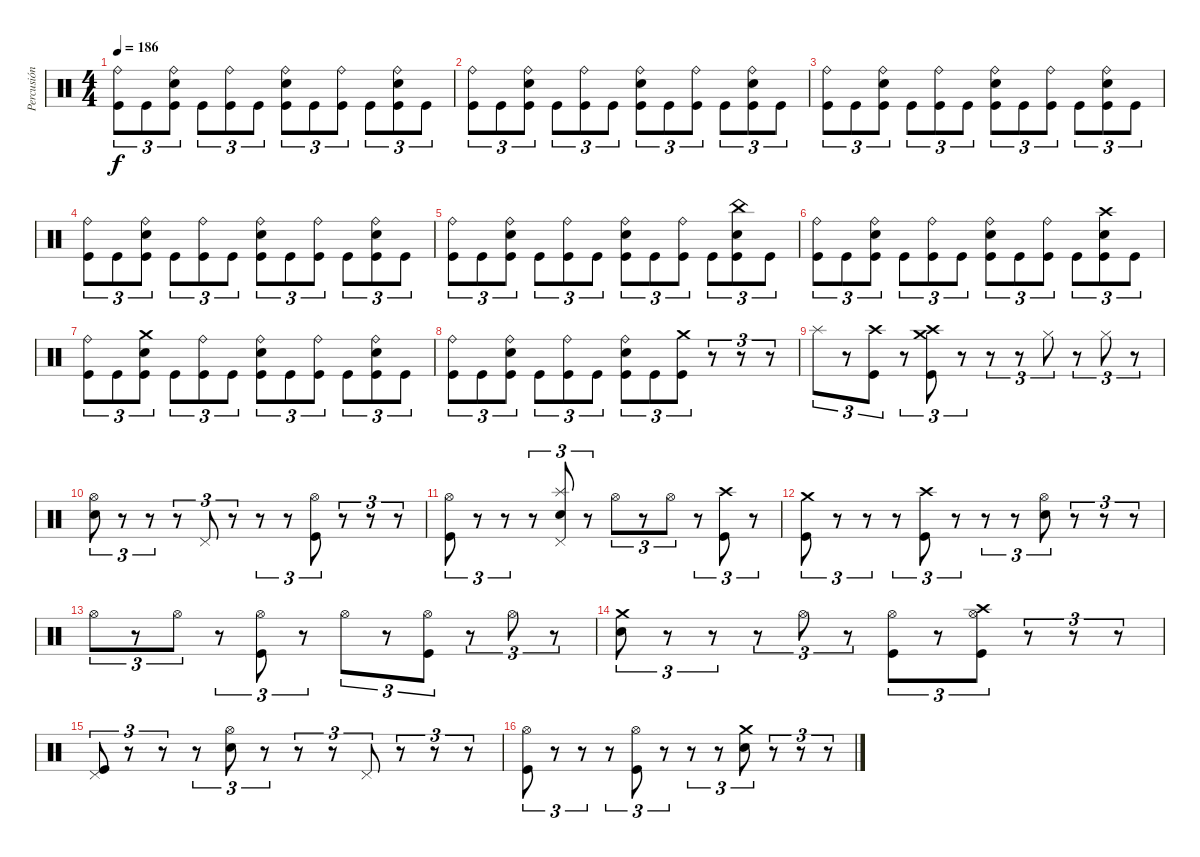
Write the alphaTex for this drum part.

\track ("Percusión" "Percusión") {instrument percussion}
\staff {score}
\articulation defaults
\ts (4 4)
\tempo 186
\clef neutral
\ks c
("Ride (bell)" "Kick (hit)").8{tu (3 2) dy f} "Kick (hit)".8{tu (3 2)} ("Ride (bell)" "Snare (hit) 2" "Kick (hit)").8{tu (3 2)} "Kick (hit)".8{tu (3 2)} ("Ride (bell)" "Kick (hit)").8{tu (3 2)} "Kick (hit)".8{tu (3 2)} ("Ride (bell)" "Snare (hit) 2" "Kick (hit)").8{tu (3 2)} "Kick (hit)".8{tu (3 2)} ("Ride (bell)" "Kick (hit)").8{tu (3 2)} "Kick (hit)".8{tu (3 2)} ("Ride (bell)" "Snare (hit) 2" "Kick (hit)").8{tu (3 2)} "Kick (hit)".8{tu (3 2)} |
("Ride (bell)" "Kick (hit)").8{tu (3 2)} "Kick (hit)".8{tu (3 2)} ("Ride (bell)" "Snare (hit) 2" "Kick (hit)").8{tu (3 2)} "Kick (hit)".8{tu (3 2)} ("Ride (bell)" "Kick (hit)").8{tu (3 2)} "Kick (hit)".8{tu (3 2)} ("Ride (bell)" "Snare (hit) 2" "Kick (hit)").8{tu (3 2)} "Kick (hit)".8{tu (3 2)} ("Ride (bell)" "Kick (hit)").8{tu (3 2)} "Kick (hit)".8{tu (3 2)} ("Ride (bell)" "Snare (hit) 2" "Kick (hit)").8{tu (3 2)} "Kick (hit)".8{tu (3 2)} |
("Ride (bell)" "Kick (hit)").8{tu (3 2)} "Kick (hit)".8{tu (3 2)} ("Ride (bell)" "Snare (hit) 2" "Kick (hit)").8{tu (3 2)} "Kick (hit)".8{tu (3 2)} ("Ride (bell)" "Kick (hit)").8{tu (3 2)} "Kick (hit)".8{tu (3 2)} ("Ride (bell)" "Snare (hit) 2" "Kick (hit)").8{tu (3 2)} "Kick (hit)".8{tu (3 2)} ("Ride (bell)" "Kick (hit)").8{tu (3 2)} "Kick (hit)".8{tu (3 2)} ("Ride (bell)" "Snare (hit) 2" "Kick (hit)").8{tu (3 2)} "Kick (hit)".8{tu (3 2)} |
("Ride (bell)" "Kick (hit)").8{tu (3 2)} "Kick (hit)".8{tu (3 2)} ("Ride (bell)" "Snare (hit) 2" "Kick (hit)").8{tu (3 2)} "Kick (hit)".8{tu (3 2)} ("Ride (bell)" "Kick (hit)").8{tu (3 2)} "Kick (hit)".8{tu (3 2)} ("Ride (bell)" "Snare (hit) 2" "Kick (hit)").8{tu (3 2)} "Kick (hit)".8{tu (3 2)} ("Ride (bell)" "Kick (hit)").8{tu (3 2)} "Kick (hit)".8{tu (3 2)} ("Ride (bell)" "Snare (hit) 2" "Kick (hit)").8{tu (3 2)} "Kick (hit)".8{tu (3 2)} |
("Ride (bell)" "Kick (hit)").8{tu (3 2)} "Kick (hit)".8{tu (3 2)} ("Ride (bell)" "Snare (hit) 2" "Kick (hit)").8{tu (3 2)} "Kick (hit)".8{tu (3 2)} ("Ride (bell)" "Kick (hit)").8{tu (3 2)} "Kick (hit)".8{tu (3 2)} ("Ride (bell)" "Snare (hit) 2" "Kick (hit)").8{tu (3 2)} "Kick (hit)".8{tu (3 2)} ("Ride (bell)" "Kick (hit)").8{tu (3 2)} "Kick (hit)".8{tu (3 2)} ("China (hit)" "Snare (hit) 2" "Kick (hit)").8{tu (3 2)} "Kick (hit)".8{tu (3 2)} |
("Ride (bell)" "Kick (hit)").8{tu (3 2)} "Kick (hit)".8{tu (3 2)} ("Ride (bell)" "Snare (hit) 2" "Kick (hit)").8{tu (3 2)} "Kick (hit)".8{tu (3 2)} ("Ride (bell)" "Kick (hit)").8{tu (3 2)} "Kick (hit)".8{tu (3 2)} ("Ride (bell)" "Snare (hit) 2" "Kick (hit)").8{tu (3 2)} "Kick (hit)".8{tu (3 2)} ("Ride (bell)" "Kick (hit)").8{tu (3 2)} "Kick (hit)".8{tu (3 2)} ("Crash high (hit)" "Snare (hit) 2" "Kick (hit)").8{tu (3 2)} "Kick (hit)".8{tu (3 2)} |
("Ride (bell)" "Kick (hit)").8{tu (3 2)} "Kick (hit)".8{tu (3 2)} ("Crash medium (hit)" "Snare (hit) 2" "Kick (hit)").8{tu (3 2)} "Kick (hit)".8{tu (3 2)} ("Ride (bell)" "Kick (hit)").8{tu (3 2)} "Kick (hit)".8{tu (3 2)} ("Ride (bell)" "Snare (hit) 2" "Kick (hit)").8{tu (3 2)} "Kick (hit)".8{tu (3 2)} ("Ride (bell)" "Kick (hit)").8{tu (3 2)} "Kick (hit)".8{tu (3 2)} ("Ride (bell)" "Snare (hit) 2" "Kick (hit)").8{tu (3 2)} "Kick (hit)".8{tu (3 2)} |
("Ride (bell)" "Kick (hit)").8{tu (3 2)} "Kick (hit)".8{tu (3 2)} ("Ride (bell)" "Snare (hit) 2" "Kick (hit)").8{tu (3 2)} "Kick (hit)".8{tu (3 2)} ("Ride (bell)" "Kick (hit)").8{tu (3 2)} "Kick (hit)".8{tu (3 2)} ("Ride (bell)" "Snare (hit) 2" "Kick (hit)").8{tu (3 2)} "Kick (hit)".8{tu (3 2)} ("Crash medium (hit)" "Kick (hit)").8{tu (3 2)} r.8{tu (3 2)} r.8{tu (3 2)} r.8{tu (3 2)} |
"Splash (hit)".8{tu (3 2)} r.8{tu (3 2)} ("Crash high (hit)" "Kick (hit)").8{tu (3 2)} r.8{tu (3 2)} ("Crash high (hit)" "Crash medium (hit)" "Kick (hit)").8{tu (3 2)} r.8{tu (3 2)} r.8{tu (3 2)} r.8{tu (3 2)} "Hi-Hat (closed)".8{tu (3 2)} r.8{tu (3 2)} "Hi-Hat (closed)".8{tu (3 2)} r.8{tu (3 2)} |
("Hi-Hat (open)" "Snare (hit) 2").8{tu (3 2)} r.8{tu (3 2)} r.8{tu (3 2)} r.8{tu (3 2)} "Pedal Hi-Hat (hit)".8{tu (3 2)} r.8{tu (3 2)} r.8{tu (3 2)} r.8{tu (3 2)} ("Hi-Hat (open)" "Kick (hit)").8{tu (3 2)} r.8{tu (3 2)} r.8{tu (3 2)} r.8{tu (3 2)} |
("Hi-Hat (open)" "Kick (hit)").8{tu (3 2)} r.8{tu (3 2)} r.8{tu (3 2)} r.8{tu (3 2)} ("Splash (hit)" "Pedal Hi-Hat (hit)" "Snare (hit) 2").8{tu (3 2)} r.8{tu (3 2)} "Hi-Hat (open)".8{tu (3 2)} r.8{tu (3 2)} "Hi-Hat (open)".8{tu (3 2)} r.8{tu (3 2)} ("Crash high (hit)" "Kick (hit)").8{tu (3 2)} r.8{tu (3 2)} |
("Crash medium (hit)" "Kick (hit)").8{tu (3 2)} r.8{tu (3 2)} r.8{tu (3 2)} r.8{tu (3 2)} ("Crash high (hit)" "Kick (hit)").8{tu (3 2)} r.8{tu (3 2)} r.8{tu (3 2)} r.8{tu (3 2)} ("Hi-Hat (open)" "Snare (hit) 2").8{tu (3 2)} r.8{tu (3 2)} r.8{tu (3 2)} r.8{tu (3 2)} |
"Hi-Hat (open)".8{tu (3 2)} r.8{tu (3 2)} "Hi-Hat (open)".8{tu (3 2)} r.8{tu (3 2)} ("Hi-Hat (open)" "Kick (hit)").8{tu (3 2)} r.8{tu (3 2)} "Hi-Hat (open)".8{tu (3 2)} r.8{tu (3 2)} ("Hi-Hat (open)" "Kick (hit)").8{tu (3 2)} r.8{tu (3 2)} "Hi-Hat (open)".8{tu (3 2)} r.8{tu (3 2)} |
("Crash medium (hit)" "Snare (hit) 2").8{tu (3 2)} r.8{tu (3 2)} r.8{tu (3 2)} r.8{tu (3 2)} "Hi-Hat (open)".8{tu (3 2)} r.8{tu (3 2)} ("Hi-Hat (open)" "Kick (hit)").8{tu (3 2)} r.8{tu (3 2)} ("Crash high (hit)" "Hi-Hat (open)" "Kick (hit)").8{tu (3 2)} r.8{tu (3 2)} r.8{tu (3 2)} r.8{tu (3 2)} |
("Pedal Hi-Hat (hit)" "Kick (hit)").8{tu (3 2)} r.8{tu (3 2)} r.8{tu (3 2)} r.8{tu (3 2)} ("Hi-Hat (open)" "Snare (hit) 2").8{tu (3 2)} r.8{tu (3 2)} r.8{tu (3 2)} r.8{tu (3 2)} "Pedal Hi-Hat (hit)".8{tu (3 2)} r.8{tu (3 2)} r.8{tu (3 2)} r.8{tu (3 2)} |
("Hi-Hat (open)" "Kick (hit)").8{tu (3 2)} r.8{tu (3 2)} r.8{tu (3 2)} r.8{tu (3 2)} ("Hi-Hat (open)" "Kick (hit)").8{tu (3 2)} r.8{tu (3 2)} r.8{tu (3 2)} r.8{tu (3 2)} ("Crash medium (hit)" "Snare (hit) 2").8{tu (3 2)} r.8{tu (3 2)} r.8{tu (3 2)} r.8{tu (3 2)}
